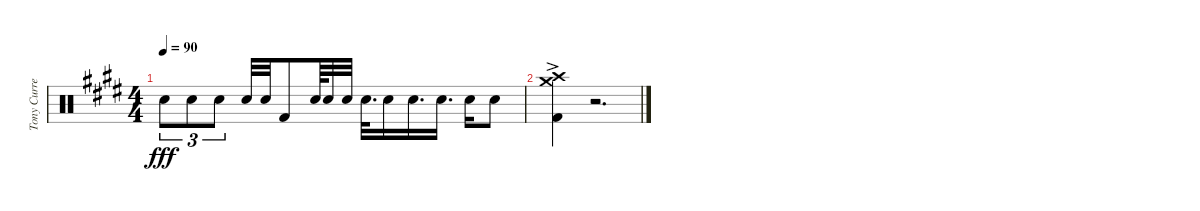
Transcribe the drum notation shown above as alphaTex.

\track ("Tony Currenti" "Tony Curre") {instrument percussion}
\staff {score}
\articulation defaults
\ts (4 4)
\tempo 90
\clef neutral
\ks e "Snare (hit) 2".8{tu (3 2) dy fff} "Snare (hit) 2".8{tu (3 2)} "Snare (hit) 2".8{tu (3 2)} "Snare (hit) 2".32 "Snare (hit) 2".32 "Kick (hit) 2".8 "Snare (hit) 2".64 "Snare (hit) 2".32 "Snare (hit) 2".32 "Snare (hit) 2".32{d} "Snare (hit) 2".16 "Snare (hit) 2".16{d} "Snare (hit) 2".16{d} "Snare (hit) 2".16 "Snare (hit) 2".8
|
("Crash high (hit)"{ac} "Crash medium (hit)"{ac} "Kick (hit) 2"{ac}).4 r.2{d}
